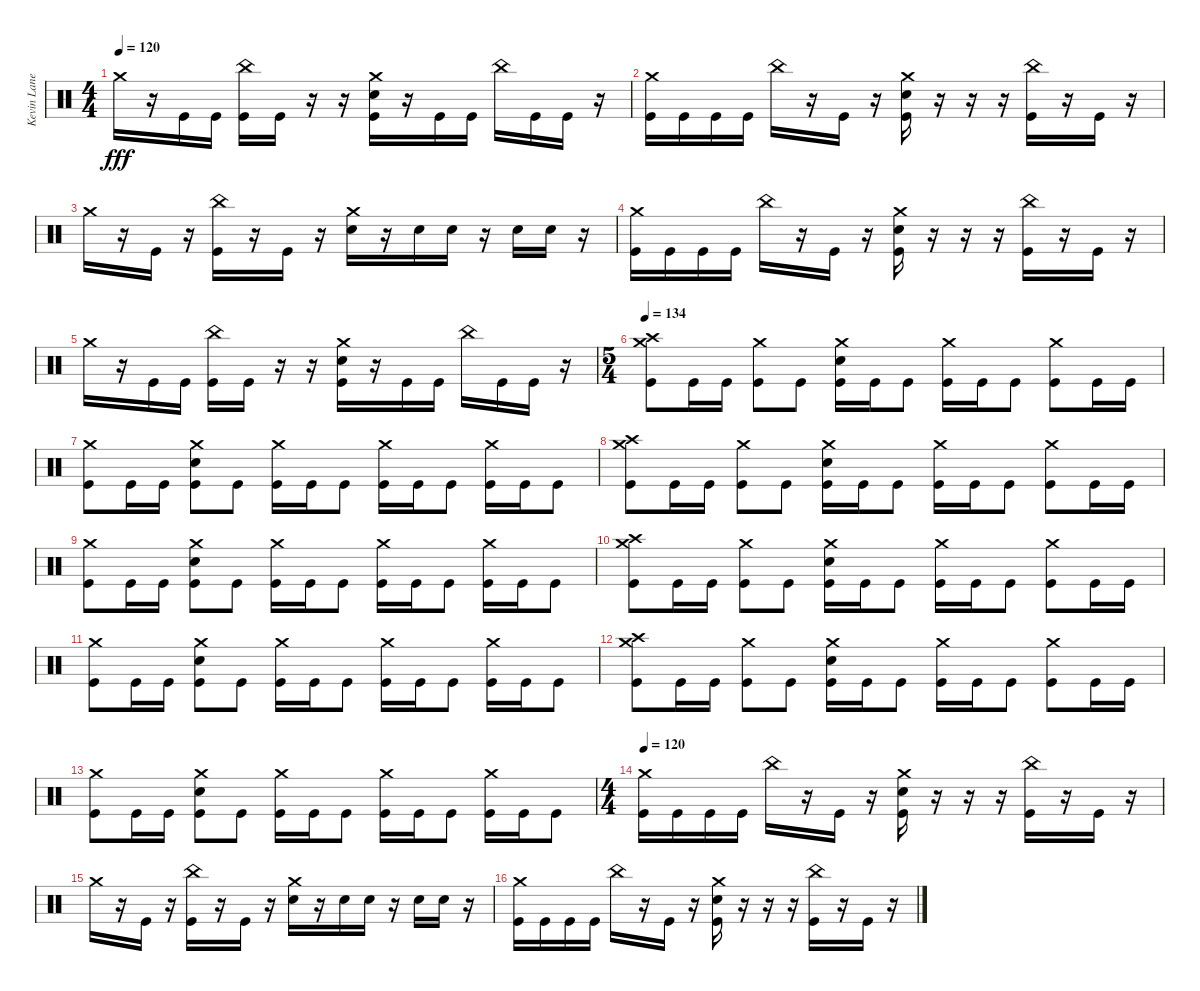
\track ("Kevin Lane" "Kevin Lane") {instrument percussion}
\staff {score}
\articulation defaults
\ts (4 4)
\tempo 120
\clef neutral
\ks c "Crash medium (hit)".16{dy fff}
r.16 "Kick (hit)".16 "Kick (hit)".16 ("China (hit)" "Kick (hit)").16 "Kick (hit)".16 r.16 r.16 ("Crash medium (hit)" "Snare (hit) 2" "Kick (hit)").16 r.16 "Kick (hit)".16 "Kick (hit)".16 "China (hit)".16 "Kick (hit)".16 "Kick (hit)".16 r.16 |
("Crash medium (hit)" "Kick (hit)").16 "Kick (hit)".16 "Kick (hit)".16 "Kick (hit)".16 "China (hit)".16 r.16 "Kick (hit)".16 r.16 ("Crash medium (hit)" "Snare (hit) 2" "Kick (hit)").16 r.16 r.16 r.16 ("China (hit)" "Kick (hit)").16 r.16 "Kick (hit)".16 r.16 |
"Crash medium (hit)".16 r.16 "Kick (hit)".16 r.16 ("China (hit)" "Kick (hit)").16 r.16 "Kick (hit)".16 r.16 ("Crash medium (hit)" "Snare (hit) 2").16 r.16 "Snare (hit) 2".16 "Snare (hit) 2".16 r.16 "Snare (hit) 2".16 "Snare (hit) 2".16 r.16 |
("Crash medium (hit)" "Kick (hit)").16 "Kick (hit)".16 "Kick (hit)".16 "Kick (hit)".16 "China (hit)".16 r.16 "Kick (hit)".16 r.16 ("Crash medium (hit)" "Snare (hit) 2" "Kick (hit)").16 r.16 r.16 r.16 ("China (hit)" "Kick (hit)").16 r.16 "Kick (hit)".16 r.16 |
"Crash medium (hit)".16 r.16 "Kick (hit)".16 "Kick (hit)".16 ("China (hit)" "Kick (hit)").16 "Kick (hit)".16 r.16 r.16 ("Crash medium (hit)" "Snare (hit) 2" "Kick (hit)").16 r.16 "Kick (hit)".16 "Kick (hit)".16 "China (hit)".16 "Kick (hit)".16 "Kick (hit)".16 r.16 |
\ts (5 4)
\tempo 134
("Crash high (hit)" "Crash medium (hit)" "Kick (hit)").8 "Kick (hit)".16 "Kick (hit)".16 ("Crash medium (hit)" "Kick (hit)").8 "Kick (hit)".8 ("Crash medium (hit)" "Snare (hit) 2" "Kick (hit)").16 "Kick (hit)".16 "Kick (hit)".8 ("Crash medium (hit)" "Kick (hit)").16 "Kick (hit)".16 "Kick (hit)".8 ("Crash medium (hit)" "Kick (hit)").8 "Kick (hit)".16 "Kick (hit)".16 |
("Crash medium (hit)" "Kick (hit)").8 "Kick (hit)".16 "Kick (hit)".16 ("Crash medium (hit)" "Snare (hit) 2" "Kick (hit)").8 "Kick (hit)".8 ("Crash medium (hit)" "Kick (hit)").16 "Kick (hit)".16 "Kick (hit)".8 ("Crash medium (hit)" "Kick (hit)").16 "Kick (hit)".16 "Kick (hit)".8 ("Crash medium (hit)" "Kick (hit)").16 "Kick (hit)".16 "Kick (hit)".8 |
("Crash high (hit)" "Crash medium (hit)" "Kick (hit)").8 "Kick (hit)".16 "Kick (hit)".16 ("Crash medium (hit)" "Kick (hit)").8 "Kick (hit)".8 ("Crash medium (hit)" "Snare (hit) 2" "Kick (hit)").16 "Kick (hit)".16 "Kick (hit)".8 ("Crash medium (hit)" "Kick (hit)").16 "Kick (hit)".16 "Kick (hit)".8 ("Crash medium (hit)" "Kick (hit)").8 "Kick (hit)".16 "Kick (hit)".16 |
("Crash medium (hit)" "Kick (hit)").8 "Kick (hit)".16 "Kick (hit)".16 ("Crash medium (hit)" "Snare (hit) 2" "Kick (hit)").8 "Kick (hit)".8 ("Crash medium (hit)" "Kick (hit)").16 "Kick (hit)".16 "Kick (hit)".8 ("Crash medium (hit)" "Kick (hit)").16 "Kick (hit)".16 "Kick (hit)".8 ("Crash medium (hit)" "Kick (hit)").16 "Kick (hit)".16 "Kick (hit)".8 |
("Crash high (hit)" "Crash medium (hit)" "Kick (hit)").8 "Kick (hit)".16 "Kick (hit)".16 ("Crash medium (hit)" "Kick (hit)").8 "Kick (hit)".8 ("Crash medium (hit)" "Snare (hit) 2" "Kick (hit)").16{volume 13} "Kick (hit)".16 "Kick (hit)".8 ("Crash medium (hit)" "Kick (hit)").16 "Kick (hit)".16 "Kick (hit)".8 ("Crash medium (hit)" "Kick (hit)").8 "Kick (hit)".16 "Kick (hit)".16 |
("Crash medium (hit)" "Kick (hit)").8 "Kick (hit)".16 "Kick (hit)".16 ("Crash medium (hit)" "Snare (hit) 2" "Kick (hit)").8 "Kick (hit)".8 ("Crash medium (hit)" "Kick (hit)").16 "Kick (hit)".16 "Kick (hit)".8 ("Crash medium (hit)" "Kick (hit)").16 "Kick (hit)".16 "Kick (hit)".8 ("Crash medium (hit)" "Kick (hit)").16 "Kick (hit)".16 "Kick (hit)".8 |
("Crash high (hit)" "Crash medium (hit)" "Kick (hit)").8 "Kick (hit)".16 "Kick (hit)".16 ("Crash medium (hit)" "Kick (hit)").8 "Kick (hit)".8 ("Crash medium (hit)" "Snare (hit) 2" "Kick (hit)").16 "Kick (hit)".16 "Kick (hit)".8 ("Crash medium (hit)" "Kick (hit)").16 "Kick (hit)".16 "Kick (hit)".8 ("Crash medium (hit)" "Kick (hit)").8 "Kick (hit)".16 "Kick (hit)".16 |
("Crash medium (hit)" "Kick (hit)").8 "Kick (hit)".16 "Kick (hit)".16 ("Crash medium (hit)" "Snare (hit) 2" "Kick (hit)").8 "Kick (hit)".8 ("Crash medium (hit)" "Kick (hit)").16 "Kick (hit)".16 "Kick (hit)".8 ("Crash medium (hit)" "Kick (hit)").16 "Kick (hit)".16 "Kick (hit)".8 ("Crash medium (hit)" "Kick (hit)").16 "Kick (hit)".16 "Kick (hit)".8 |
\ts (4 4)
\tempo 120
("Crash medium (hit)" "Kick (hit)").16 "Kick (hit)".16 "Kick (hit)".16 "Kick (hit)".16 "China (hit)".16 r.16 "Kick (hit)".16 r.16 ("Crash medium (hit)" "Snare (hit) 2" "Kick (hit)").16 r.16 r.16 r.16 ("China (hit)" "Kick (hit)").16 r.16 "Kick (hit)".16 r.16 |
"Crash medium (hit)".16 r.16 "Kick (hit)".16 r.16 ("China (hit)" "Kick (hit)").16 r.16 "Kick (hit)".16 r.16 ("Crash medium (hit)" "Snare (hit) 2").16 r.16 "Snare (hit) 2".16 "Snare (hit) 2".16 r.16 "Snare (hit) 2".16 "Snare (hit) 2".16 r.16 |
("Crash medium (hit)" "Kick (hit)").16 "Kick (hit)".16 "Kick (hit)".16 "Kick (hit)".16 "China (hit)".16 r.16 "Kick (hit)".16 r.16 ("Crash medium (hit)" "Snare (hit) 2" "Kick (hit)").16 r.16 r.16 r.16 ("China (hit)" "Kick (hit)").16 r.16 "Kick (hit)".16 r.16
